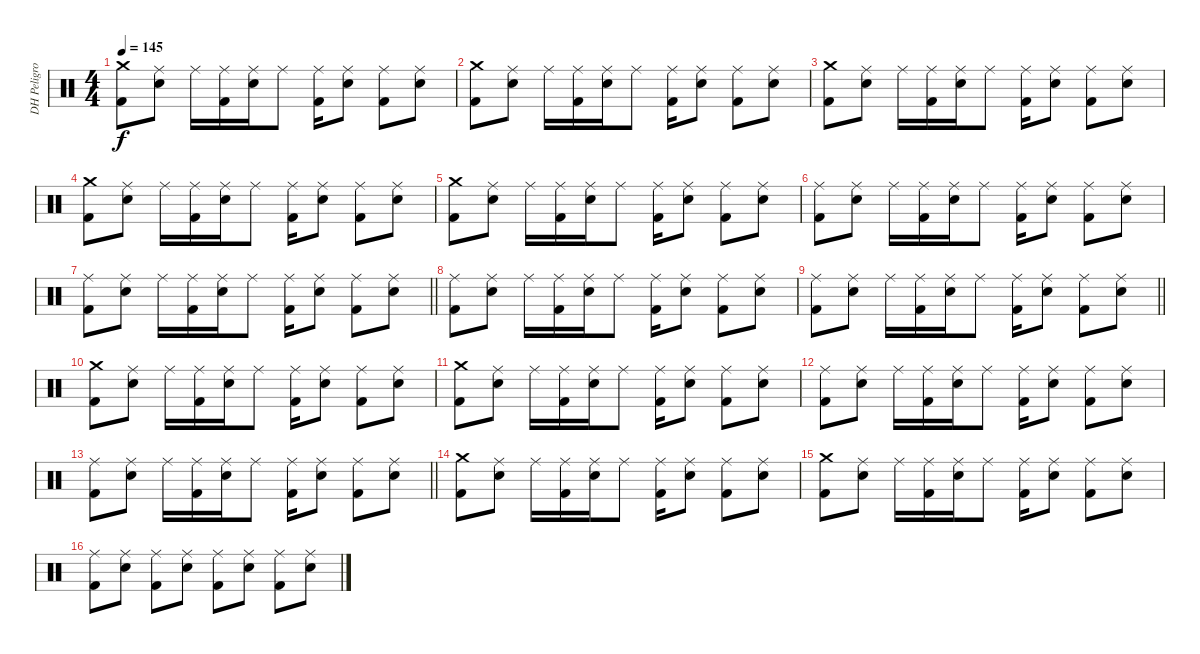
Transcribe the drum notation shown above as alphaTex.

\track ("DH Peligro" "DH Peligro") {instrument percussion}
\staff {score}
\articulation defaults
\ts (4 4)
\tempo 145
\clef neutral
\ks c
("Crash medium (hit)" "Kick (hit) 2").8{dy f} ("Ride (middle)" "Snare (hit) 2").8 "Ride (middle)".16 ("Ride (middle)" "Kick (hit) 2").16 ("Ride (middle)" "Snare (hit) 2").16 "Ride (middle)".8 ("Ride (middle)" "Kick (hit) 2").16 ("Ride (middle)" "Snare (hit) 2").8 ("Ride (middle)" "Kick (hit) 2").8 ("Ride (middle)" "Snare (hit) 2").8 |
("Crash medium (hit)" "Kick (hit) 2").8 ("Ride (middle)" "Snare (hit) 2").8 "Ride (middle)".16 ("Ride (middle)" "Kick (hit) 2").16 ("Ride (middle)" "Snare (hit) 2").16 "Ride (middle)".8 ("Ride (middle)" "Kick (hit) 2").16 ("Ride (middle)" "Snare (hit) 2").8 ("Ride (middle)" "Kick (hit) 2").8 ("Ride (middle)" "Snare (hit) 2").8 |
("Crash medium (hit)" "Kick (hit) 2").8 ("Ride (middle)" "Snare (hit) 2").8 "Ride (middle)".16 ("Ride (middle)" "Kick (hit) 2").16 ("Ride (middle)" "Snare (hit) 2").16 "Ride (middle)".8 ("Ride (middle)" "Kick (hit) 2").16 ("Ride (middle)" "Snare (hit) 2").8 ("Ride (middle)" "Kick (hit) 2").8 ("Ride (middle)" "Snare (hit) 2").8 |
("Crash medium (hit)" "Kick (hit) 2").8 ("Ride (middle)" "Snare (hit) 2").8 "Ride (middle)".16 ("Ride (middle)" "Kick (hit) 2").16 ("Ride (middle)" "Snare (hit) 2").16 "Ride (middle)".8 ("Ride (middle)" "Kick (hit) 2").16 ("Ride (middle)" "Snare (hit) 2").8 ("Ride (middle)" "Kick (hit) 2").8 ("Ride (middle)" "Snare (hit) 2").8 |
("Crash medium (hit)" "Kick (hit) 2").8 ("Ride (middle)" "Snare (hit) 2").8 "Ride (middle)".16 ("Ride (middle)" "Kick (hit) 2").16 ("Ride (middle)" "Snare (hit) 2").16 "Ride (middle)".8 ("Ride (middle)" "Kick (hit) 2").16 ("Ride (middle)" "Snare (hit) 2").8 ("Ride (middle)" "Kick (hit) 2").8 ("Ride (middle)" "Snare (hit) 2").8 |
("Ride (middle)" "Kick (hit) 2").8 ("Ride (middle)" "Snare (hit) 2").8 "Ride (middle)".16 ("Ride (middle)" "Kick (hit) 2").16 ("Ride (middle)" "Snare (hit) 2").16 "Ride (middle)".8 ("Ride (middle)" "Kick (hit) 2").16 ("Ride (middle)" "Snare (hit) 2").8 ("Ride (middle)" "Kick (hit) 2").8 ("Ride (middle)" "Snare (hit) 2").8 |
\barLineRight lightlight
("Ride (middle)" "Kick (hit) 2").8 ("Ride (middle)" "Snare (hit) 2").8 "Ride (middle)".16 ("Ride (middle)" "Kick (hit) 2").16 ("Ride (middle)" "Snare (hit) 2").16 "Ride (middle)".8 ("Ride (middle)" "Kick (hit) 2").16 ("Ride (middle)" "Snare (hit) 2").8 ("Ride (middle)" "Kick (hit) 2").8 ("Ride (middle)" "Snare (hit) 2").8 |
("Ride (middle)" "Kick (hit) 2").8 ("Ride (middle)" "Snare (hit) 2").8 "Ride (middle)".16 ("Ride (middle)" "Kick (hit) 2").16 ("Ride (middle)" "Snare (hit) 2").16 "Ride (middle)".8 ("Ride (middle)" "Kick (hit) 2").16 ("Ride (middle)" "Snare (hit) 2").8 ("Ride (middle)" "Kick (hit) 2").8 ("Ride (middle)" "Snare (hit) 2").8 |
\barLineRight lightlight
("Ride (middle)" "Kick (hit) 2").8 ("Ride (middle)" "Snare (hit) 2").8 "Ride (middle)".16 ("Ride (middle)" "Kick (hit) 2").16 ("Ride (middle)" "Snare (hit) 2").16 "Ride (middle)".8 ("Ride (middle)" "Kick (hit) 2").16 ("Ride (middle)" "Snare (hit) 2").8 ("Ride (middle)" "Kick (hit) 2").8 ("Ride (middle)" "Snare (hit) 2").8 |
("Crash medium (hit)" "Kick (hit) 2").8 ("Ride (middle)" "Snare (hit) 2").8 "Ride (middle)".16 ("Ride (middle)" "Kick (hit) 2").16 ("Ride (middle)" "Snare (hit) 2").16 "Ride (middle)".8 ("Ride (middle)" "Kick (hit) 2").16 ("Ride (middle)" "Snare (hit) 2").8 ("Ride (middle)" "Kick (hit) 2").8 ("Ride (middle)" "Snare (hit) 2").8 |
("Crash medium (hit)" "Kick (hit) 2").8 ("Ride (middle)" "Snare (hit) 2").8 "Ride (middle)".16 ("Ride (middle)" "Kick (hit) 2").16 ("Ride (middle)" "Snare (hit) 2").16 "Ride (middle)".8 ("Ride (middle)" "Kick (hit) 2").16 ("Ride (middle)" "Snare (hit) 2").8 ("Ride (middle)" "Kick (hit) 2").8 ("Ride (middle)" "Snare (hit) 2").8 |
("Ride (middle)" "Kick (hit) 2").8 ("Ride (middle)" "Snare (hit) 2").8 "Ride (middle)".16 ("Ride (middle)" "Kick (hit) 2").16 ("Ride (middle)" "Snare (hit) 2").16 "Ride (middle)".8 ("Ride (middle)" "Kick (hit) 2").16 ("Ride (middle)" "Snare (hit) 2").8 ("Ride (middle)" "Kick (hit) 2").8 ("Ride (middle)" "Snare (hit) 2").8 |
\barLineRight lightlight
("Ride (middle)" "Kick (hit) 2").8 ("Ride (middle)" "Snare (hit) 2").8 "Ride (middle)".16 ("Ride (middle)" "Kick (hit) 2").16 ("Ride (middle)" "Snare (hit) 2").16 "Ride (middle)".8 ("Ride (middle)" "Kick (hit) 2").16 ("Ride (middle)" "Snare (hit) 2").8 ("Ride (middle)" "Kick (hit) 2").8 ("Ride (middle)" "Snare (hit) 2").8 |
("Crash medium (hit)" "Kick (hit) 2").8 ("Ride (middle)" "Snare (hit) 2").8 "Ride (middle)".16 ("Ride (middle)" "Kick (hit) 2").16 ("Ride (middle)" "Snare (hit) 2").16 "Ride (middle)".8 ("Ride (middle)" "Kick (hit) 2").16 ("Ride (middle)" "Snare (hit) 2").8 ("Ride (middle)" "Kick (hit) 2").8 ("Ride (middle)" "Snare (hit) 2").8 |
("Crash medium (hit)" "Kick (hit) 2").8 ("Ride (middle)" "Snare (hit) 2").8 "Ride (middle)".16 ("Ride (middle)" "Kick (hit) 2").16 ("Ride (middle)" "Snare (hit) 2").16 "Ride (middle)".8 ("Ride (middle)" "Kick (hit) 2").16 ("Ride (middle)" "Snare (hit) 2").8 ("Ride (middle)" "Kick (hit) 2").8 ("Ride (middle)" "Snare (hit) 2").8 |
("Ride (middle)" "Kick (hit) 2").8 ("Ride (middle)" "Snare (hit) 2").8 ("Ride (middle)" "Kick (hit) 2").8 ("Ride (middle)" "Snare (hit) 2").8 ("Ride (middle)" "Kick (hit) 2").8 ("Ride (middle)" "Snare (hit) 2").8 ("Ride (middle)" "Kick (hit) 2").8 ("Ride (middle)" "Snare (hit) 2").8
